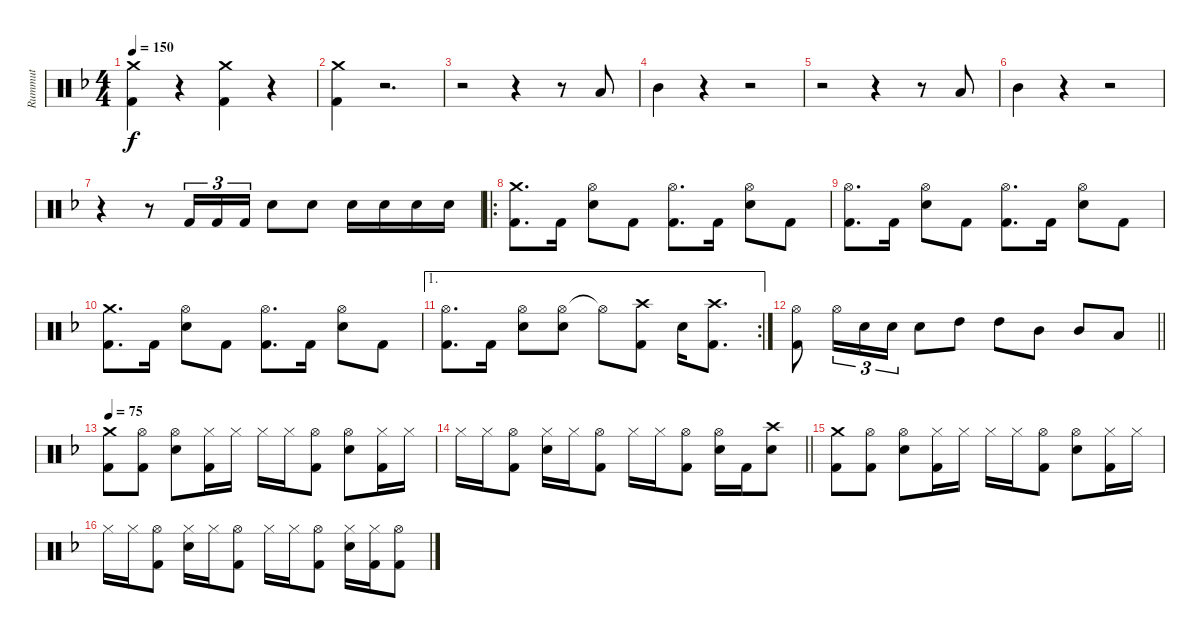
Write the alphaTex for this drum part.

\track ("Rummut" "Rummut") {instrument percussion}
\staff {score}
\articulation defaults
\ts (4 4)
\tempo 150
\clef neutral
\ks dminor
("Crash medium (hit)" "Kick (hit) 2").4{dy f} r.4 ("Crash medium (hit)" "Kick (hit) 2").4 r.4 |
("Crash medium (hit)" "Kick (hit) 2").4 r.2{d} |
r.2 r.4 r.8 "Low Tom (hit)".8 |
"Mid Tom (hit)".4 r.4 r.2 |
r.2 r.4 r.8 "Low Tom (hit)".8 |
"Mid Tom (hit)".4 r.4 r.2 |
r.4 r.8 "Kick (hit) 2".16{tu (3 2)} "Kick (hit) 2".16{tu (3 2)} "Kick (hit) 2".16{tu (3 2)} "Snare (hit) 2".8 "Snare (hit) 2".8 "Snare (hit) 2".16 "Snare (hit) 2".16 "Snare (hit) 2".16 "Snare (hit) 2".16 |
\ro
("Crash medium (hit)" "Kick (hit) 2").8{d} "Kick (hit) 2".16 ("Hi-Hat (open)" "Snare (hit) 2").8 "Kick (hit) 2".8 ("Hi-Hat (open)" "Kick (hit) 2").8{d} "Kick (hit) 2".16 ("Hi-Hat (open)" "Snare (hit) 2").8 "Kick (hit) 2".8 |
("Hi-Hat (open)" "Kick (hit) 2").8{d} "Kick (hit) 2".16 ("Hi-Hat (open)" "Snare (hit) 2").8 "Kick (hit) 2".8 ("Hi-Hat (open)" "Kick (hit) 2").8{d} "Kick (hit) 2".16 ("Hi-Hat (open)" "Snare (hit) 2").8 "Kick (hit) 2".8 |
("Crash medium (hit)" "Kick (hit) 2").8{d} "Kick (hit) 2".16 ("Hi-Hat (open)" "Snare (hit) 2").8 "Kick (hit) 2".8 ("Hi-Hat (open)" "Kick (hit) 2").8{d} "Kick (hit) 2".16 ("Hi-Hat (open)" "Snare (hit) 2").8 "Kick (hit) 2".8 |
\ae 1
\rc 2
("Hi-Hat (open)" "Kick (hit) 2").8{d} "Kick (hit) 2".16 ("Hi-Hat (open)" "Snare (hit) 2").8 ("Hi-Hat (open)" "Snare (hit) 2").8 "Hi-Hat (open)"{t}.8 ("Crash high (hit)" "Kick (hit) 2").8 "Snare (hit) 2".16 ("Crash high (hit)" "Kick (hit) 2").8{d} |
\barLineRight lightlight
("Hi-Hat (open)" "Kick (hit) 2").8 "Hi-Hat (open)".16{tu (3 2)} "Snare (hit) 2".16{tu (3 2)} "Snare (hit) 2".16{tu (3 2)} "Snare (hit) 2".8 "High Tom (hit)".8 "High Tom (hit)".8 "Mid Tom (hit)".8 "Mid Tom (hit)".8 "Low Tom (hit)".8 |
\tempo 75
("Crash medium (hit)" "Kick (hit) 2").8 ("Hi-Hat (open)" "Kick (hit) 2").8 ("Hi-Hat (open)" "Snare (hit) 2").8 ("Hi-Hat (closed)" "Kick (hit) 2").16 "Hi-Hat (closed)".16 "Hi-Hat (closed)".16 "Hi-Hat (closed)".16 ("Hi-Hat (open)" "Kick (hit) 2").8 ("Hi-Hat (open)" "Snare (hit) 2").8 ("Hi-Hat (closed)" "Kick (hit) 2").16 "Hi-Hat (closed)".16 |
\barLineRight lightlight "Hi-Hat (closed)".16 "Hi-Hat (closed)".16
("Hi-Hat (open)" "Kick (hit) 2").8 ("Hi-Hat (closed)" "Snare (hit) 2").16 "Hi-Hat (closed)".16 ("Hi-Hat (open)" "Kick (hit) 2").8 "Hi-Hat (closed)".16 "Hi-Hat (closed)".16 ("Hi-Hat (open)" "Kick (hit) 2").8 ("Hi-Hat (open)" "Snare (hit) 2").16 "Kick (hit) 2".16 ("Crash high (hit)" "Snare (hit) 2").8 |
("Crash medium (hit)" "Kick (hit) 2").8 ("Hi-Hat (open)" "Kick (hit) 2").8 ("Hi-Hat (open)" "Snare (hit) 2").8 ("Hi-Hat (closed)" "Kick (hit) 2").16 "Hi-Hat (closed)".16 "Hi-Hat (closed)".16 "Hi-Hat (closed)".16 ("Hi-Hat (open)" "Kick (hit) 2").8 ("Hi-Hat (open)" "Snare (hit) 2").8 ("Hi-Hat (closed)" "Kick (hit) 2").16 "Hi-Hat (closed)".16 |
"Hi-Hat (closed)".16 "Hi-Hat (closed)".16 ("Hi-Hat (open)" "Kick (hit) 2").8 ("Hi-Hat (closed)" "Snare (hit) 2").16 "Hi-Hat (closed)".16 ("Hi-Hat (open)" "Kick (hit) 2").8 "Hi-Hat (closed)".16 "Hi-Hat (closed)".16 ("Hi-Hat (open)" "Kick (hit) 2").8 ("Hi-Hat (closed)" "Snare (hit) 2").16 ("Hi-Hat (closed)" "Kick (hit) 2").16 ("Hi-Hat (open)" "Kick (hit) 2").8
